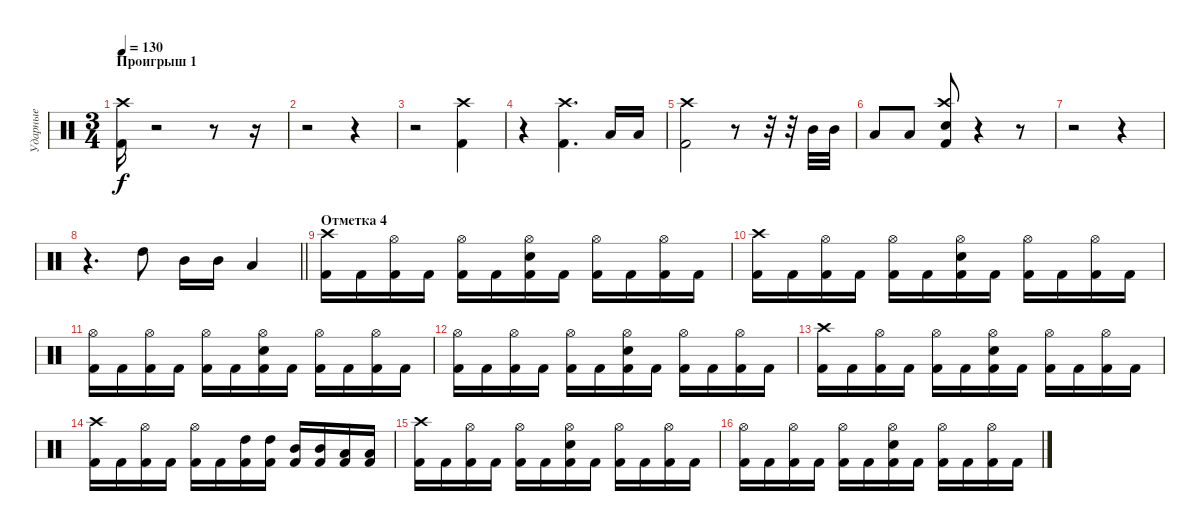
\track ("Ударные" "Ударные") {instrument percussion}
\staff {score}
\articulation defaults
\ts (3 4)
\section ("" "Проигрыш 1")
\tempo 130
\clef neutral
\ks c
("Kick (hit) 2" "Crash high (hit)").16{dy f} r.2 r.8 r.16 |
r.2 r.4 |
r.2 ("Kick (hit) 2" "Crash high (hit)").4 |
r.4 ("Kick (hit) 2" "Crash high (hit)").4{d} "Low Tom (hit)".16 "Low Tom (hit)".16 |
("Kick (hit) 2" "Crash high (hit)").2 r.8 r.32 r.32 "Mid Tom (hit)".32 "Mid Tom (hit)".32 |
"Low Tom (hit)".8 "Low Tom (hit)".8 ("Crash high (hit)" "Kick (hit) 2" "Electric Snare (hit)").8 r.4 r.8 |
r.2 r.4 |
\barLineRight lightlight
r.4{d} "High Tom (hit)".8 "Mid Tom (hit)".16 "Mid Tom (hit)".16 "Low Tom (hit)".4 |
\section ("" "Отметка 4")
("Kick (hit) 2" "Crash high (hit)").16 "Kick (hit) 2".16 ("Kick (hit) 2" "Hi-Hat (open)").16 "Kick (hit) 2".16 ("Kick (hit) 2" "Hi-Hat (open)").16 "Kick (hit) 2".16 ("Kick (hit) 2" "Electric Snare (hit)" "Hi-Hat (open)").16 "Kick (hit) 2".16 ("Kick (hit) 2" "Hi-Hat (open)").16 "Kick (hit) 2".16 ("Kick (hit) 2" "Hi-Hat (open)").16 "Kick (hit) 2".16 |
("Kick (hit) 2" "Crash high (hit)").16 "Kick (hit) 2".16 ("Kick (hit) 2" "Hi-Hat (open)").16 "Kick (hit) 2".16 ("Kick (hit) 2" "Hi-Hat (open)").16 "Kick (hit) 2".16 ("Kick (hit) 2" "Electric Snare (hit)" "Hi-Hat (open)").16 "Kick (hit) 2".16 ("Kick (hit) 2" "Hi-Hat (open)").16 "Kick (hit) 2".16 ("Kick (hit) 2" "Hi-Hat (open)").16 "Kick (hit) 2".16 |
("Kick (hit) 2" "Hi-Hat (open)").16 "Kick (hit) 2".16 ("Kick (hit) 2" "Hi-Hat (open)").16 "Kick (hit) 2".16 ("Kick (hit) 2" "Hi-Hat (open)").16 "Kick (hit) 2".16 ("Kick (hit) 2" "Electric Snare (hit)" "Hi-Hat (open)").16 "Kick (hit) 2".16 ("Kick (hit) 2" "Hi-Hat (open)").16 "Kick (hit) 2".16 ("Kick (hit) 2" "Hi-Hat (open)").16 "Kick (hit) 2".16 |
("Kick (hit) 2" "Hi-Hat (open)").16 "Kick (hit) 2".16 ("Kick (hit) 2" "Hi-Hat (open)").16 "Kick (hit) 2".16 ("Kick (hit) 2" "Hi-Hat (open)").16 "Kick (hit) 2".16 ("Kick (hit) 2" "Electric Snare (hit)" "Hi-Hat (open)").16 "Kick (hit) 2".16 ("Kick (hit) 2" "Hi-Hat (open)").16 "Kick (hit) 2".16 ("Kick (hit) 2" "Hi-Hat (open)").16 "Kick (hit) 2".16 |
("Kick (hit) 2" "Crash high (hit)").16 "Kick (hit) 2".16 ("Kick (hit) 2" "Hi-Hat (open)").16 "Kick (hit) 2".16 ("Kick (hit) 2" "Hi-Hat (open)").16 "Kick (hit) 2".16 ("Kick (hit) 2" "Electric Snare (hit)" "Hi-Hat (open)").16 "Kick (hit) 2".16 ("Kick (hit) 2" "Hi-Hat (open)").16 "Kick (hit) 2".16 ("Kick (hit) 2" "Hi-Hat (open)").16 "Kick (hit) 2".16 |
("Kick (hit) 2" "Crash high (hit)").16 "Kick (hit) 2".16 ("Kick (hit) 2" "Hi-Hat (open)").16 "Kick (hit) 2".16 ("Kick (hit) 2" "Hi-Hat (open)").16 "Kick (hit) 2".16 ("Kick (hit) 2" "High Tom (hit)").16 ("Kick (hit) 2" "High Tom (hit)").16 ("Kick (hit) 2" "Mid Tom (hit)").16 ("Kick (hit) 2" "Mid Tom (hit)").16 ("Kick (hit) 2" "Low Tom (hit)").16 ("Kick (hit) 2" "Low Tom (hit)").16 |
("Kick (hit) 2" "Crash high (hit)").16 "Kick (hit) 2".16 ("Kick (hit) 2" "Hi-Hat (open)").16 "Kick (hit) 2".16 ("Kick (hit) 2" "Hi-Hat (open)").16 "Kick (hit) 2".16 ("Kick (hit) 2" "Electric Snare (hit)" "Hi-Hat (open)").16 "Kick (hit) 2".16 ("Kick (hit) 2" "Hi-Hat (open)").16 "Kick (hit) 2".16 ("Kick (hit) 2" "Hi-Hat (open)").16 "Kick (hit) 2".16 |
("Kick (hit) 2" "Hi-Hat (open)").16 "Kick (hit) 2".16 ("Kick (hit) 2" "Hi-Hat (open)").16 "Kick (hit) 2".16 ("Kick (hit) 2" "Hi-Hat (open)").16 "Kick (hit) 2".16 ("Kick (hit) 2" "Electric Snare (hit)" "Hi-Hat (open)").16 "Kick (hit) 2".16 ("Kick (hit) 2" "Hi-Hat (open)").16 "Kick (hit) 2".16 ("Kick (hit) 2" "Hi-Hat (open)").16 "Kick (hit) 2".16
